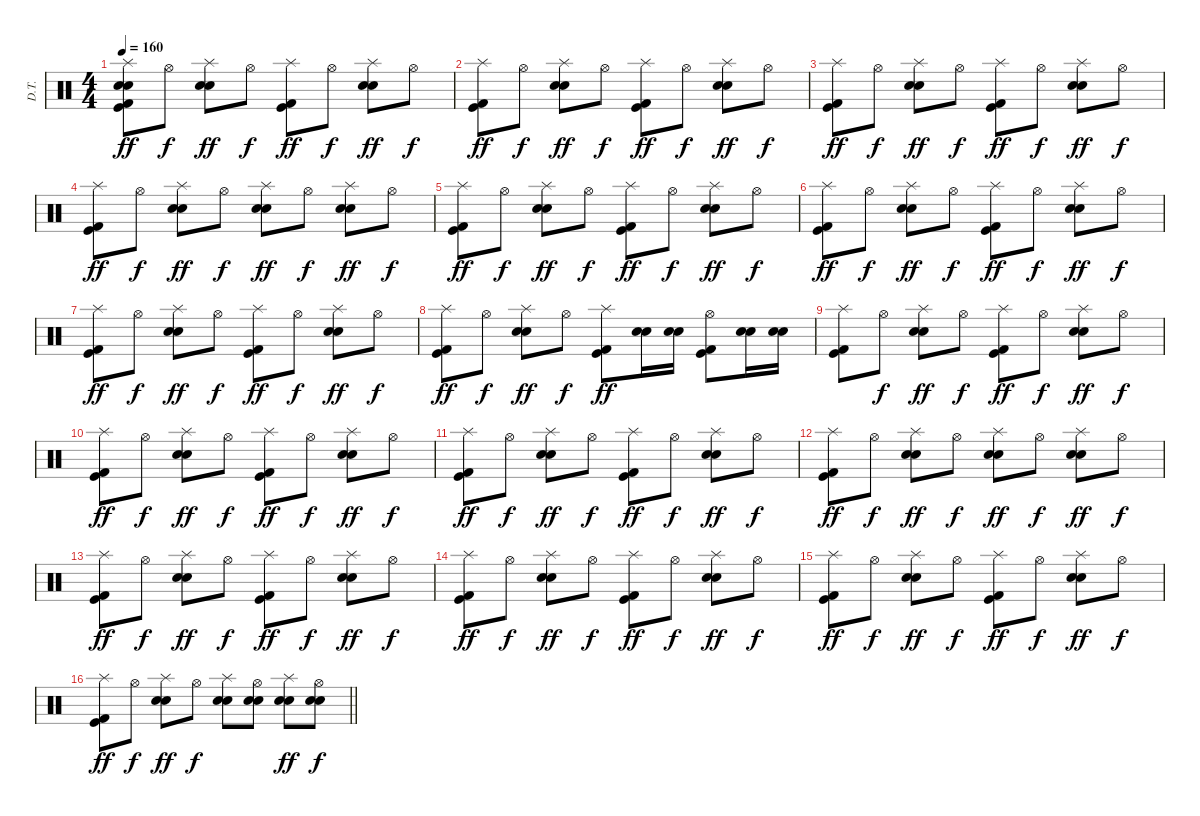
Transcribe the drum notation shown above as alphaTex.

\track ("D.T." "D.T.") {instrument percussion}
\staff {score}
\articulation defaults
\ts (4 4)
\tempo 160
\clef neutral
\ks c
("Splash (hit)" "Snare (hit) 2" "Electric Snare (hit)" "Kick (hit)" "Kick (hit) 2").8{dy ff} "Hi-Hat (open)".8{dy f} ("Splash (hit)" "Snare (hit) 2" "Electric Snare (hit)").8{dy ff} "Hi-Hat (open)".8{dy f} ("Splash (hit)" "Kick (hit)" "Kick (hit) 2").8{dy ff} "Hi-Hat (open)".8{dy f} ("Splash (hit)" "Snare (hit) 2" "Electric Snare (hit)").8{dy ff} "Hi-Hat (open)".8{dy f} |
("Splash (hit)" "Kick (hit)" "Kick (hit) 2").8{dy ff} "Hi-Hat (open)".8{dy f} ("Splash (hit)" "Snare (hit) 2" "Electric Snare (hit)").8{dy ff} "Hi-Hat (open)".8{dy f} ("Splash (hit)" "Kick (hit)" "Kick (hit) 2").8{dy ff} "Hi-Hat (open)".8{dy f} ("Splash (hit)" "Snare (hit) 2" "Electric Snare (hit)").8{dy ff} "Hi-Hat (open)".8{dy f} |
("Splash (hit)" "Kick (hit)" "Kick (hit) 2").8{dy ff} "Hi-Hat (open)".8{dy f} ("Splash (hit)" "Snare (hit) 2" "Electric Snare (hit)").8{dy ff} "Hi-Hat (open)".8{dy f} ("Splash (hit)" "Kick (hit)" "Kick (hit) 2").8{dy ff} "Hi-Hat (open)".8{dy f} ("Splash (hit)" "Snare (hit) 2" "Electric Snare (hit)").8{dy ff} "Hi-Hat (open)".8{dy f} |
("Splash (hit)" "Kick (hit)" "Kick (hit) 2").8{dy ff} "Hi-Hat (open)".8{dy f} ("Splash (hit)" "Snare (hit) 2" "Electric Snare (hit)").8{dy ff} "Hi-Hat (open)".8{dy f} ("Splash (hit)" "Snare (hit) 2" "Electric Snare (hit)").8{dy ff} "Hi-Hat (open)".8{dy f} ("Splash (hit)" "Snare (hit) 2" "Electric Snare (hit)").8{dy ff} "Hi-Hat (open)".8{dy f} |
("Splash (hit)" "Kick (hit)" "Kick (hit) 2").8{dy ff} "Hi-Hat (open)".8{dy f} ("Splash (hit)" "Snare (hit) 2" "Electric Snare (hit)").8{dy ff} "Hi-Hat (open)".8{dy f} ("Splash (hit)" "Kick (hit)" "Kick (hit) 2").8{dy ff} "Hi-Hat (open)".8{dy f} ("Splash (hit)" "Snare (hit) 2" "Electric Snare (hit)").8{dy ff} "Hi-Hat (open)".8{dy f} |
("Splash (hit)" "Kick (hit)" "Kick (hit) 2").8{dy ff} "Hi-Hat (open)".8{dy f} ("Splash (hit)" "Snare (hit) 2" "Electric Snare (hit)").8{dy ff} "Hi-Hat (open)".8{dy f} ("Splash (hit)" "Kick (hit)" "Kick (hit) 2").8{dy ff} "Hi-Hat (open)".8{dy f} ("Splash (hit)" "Snare (hit) 2" "Electric Snare (hit)").8{dy ff} "Hi-Hat (open)".8{dy f} |
("Splash (hit)" "Kick (hit)" "Kick (hit) 2").8{dy ff} "Hi-Hat (open)".8{dy f} ("Splash (hit)" "Snare (hit) 2" "Electric Snare (hit)").8{dy ff} "Hi-Hat (open)".8{dy f} ("Splash (hit)" "Kick (hit)" "Kick (hit) 2").8{dy ff} "Hi-Hat (open)".8{dy f} ("Splash (hit)" "Snare (hit) 2" "Electric Snare (hit)").8{dy ff} "Hi-Hat (open)".8{dy f} |
("Splash (hit)" "Kick (hit)" "Kick (hit) 2").8{dy ff} "Hi-Hat (open)".8{dy f} ("Splash (hit)" "Snare (hit) 2" "Electric Snare (hit)").8{dy ff} "Hi-Hat (open)".8{dy f} ("Splash (hit)" "Kick (hit)" "Kick (hit) 2").8{dy ff} ("Snare (hit) 2" "Electric Snare (hit)").16 ("Snare (hit) 2" "Electric Snare (hit)").16 ("Hi-Hat (open)" "Kick (hit)" "Kick (hit) 2").8 ("Snare (hit) 2" "Electric Snare (hit)").16 ("Snare (hit) 2" "Electric Snare (hit)").16 |
("Splash (hit)" "Kick (hit)" "Kick (hit) 2").8 "Hi-Hat (open)".8{dy f} ("Splash (hit)" "Snare (hit) 2" "Electric Snare (hit)").8{dy ff} "Hi-Hat (open)".8{dy f} ("Splash (hit)" "Kick (hit)" "Kick (hit) 2").8{dy ff} "Hi-Hat (open)".8{dy f} ("Splash (hit)" "Snare (hit) 2" "Electric Snare (hit)").8{dy ff} "Hi-Hat (open)".8{dy f} |
("Splash (hit)" "Kick (hit)" "Kick (hit) 2").8{dy ff} "Hi-Hat (open)".8{dy f} ("Splash (hit)" "Snare (hit) 2" "Electric Snare (hit)").8{dy ff} "Hi-Hat (open)".8{dy f} ("Splash (hit)" "Kick (hit)" "Kick (hit) 2").8{dy ff} "Hi-Hat (open)".8{dy f} ("Splash (hit)" "Snare (hit) 2" "Electric Snare (hit)").8{dy ff} "Hi-Hat (open)".8{dy f} |
("Splash (hit)" "Kick (hit)" "Kick (hit) 2").8{dy ff} "Hi-Hat (open)".8{dy f} ("Splash (hit)" "Snare (hit) 2" "Electric Snare (hit)").8{dy ff} "Hi-Hat (open)".8{dy f} ("Splash (hit)" "Kick (hit)" "Kick (hit) 2").8{dy ff} "Hi-Hat (open)".8{dy f} ("Splash (hit)" "Snare (hit) 2" "Electric Snare (hit)").8{dy ff} "Hi-Hat (open)".8{dy f} |
("Splash (hit)" "Kick (hit)" "Kick (hit) 2").8{dy ff} "Hi-Hat (open)".8{dy f} ("Splash (hit)" "Snare (hit) 2" "Electric Snare (hit)").8{dy ff} "Hi-Hat (open)".8{dy f} ("Splash (hit)" "Snare (hit) 2" "Electric Snare (hit)").8{dy ff} "Hi-Hat (open)".8{dy f} ("Splash (hit)" "Snare (hit) 2" "Electric Snare (hit)").8{dy ff} "Hi-Hat (open)".8{dy f} |
("Splash (hit)" "Kick (hit)" "Kick (hit) 2").8{dy ff} "Hi-Hat (open)".8{dy f} ("Splash (hit)" "Snare (hit) 2" "Electric Snare (hit)").8{dy ff} "Hi-Hat (open)".8{dy f} ("Splash (hit)" "Kick (hit)" "Kick (hit) 2").8{dy ff} "Hi-Hat (open)".8{dy f} ("Splash (hit)" "Snare (hit) 2" "Electric Snare (hit)").8{dy ff} "Hi-Hat (open)".8{dy f} |
("Splash (hit)" "Kick (hit)" "Kick (hit) 2").8{dy ff} "Hi-Hat (open)".8{dy f} ("Splash (hit)" "Snare (hit) 2" "Electric Snare (hit)").8{dy ff} "Hi-Hat (open)".8{dy f} ("Splash (hit)" "Kick (hit)" "Kick (hit) 2").8{dy ff} "Hi-Hat (open)".8{dy f} ("Splash (hit)" "Snare (hit) 2" "Electric Snare (hit)").8{dy ff} "Hi-Hat (open)".8{dy f} |
("Splash (hit)" "Kick (hit)" "Kick (hit) 2").8{dy ff} "Hi-Hat (open)".8{dy f} ("Splash (hit)" "Snare (hit) 2" "Electric Snare (hit)").8{dy ff} "Hi-Hat (open)".8{dy f} ("Splash (hit)" "Kick (hit)" "Kick (hit) 2").8{dy ff} "Hi-Hat (open)".8{dy f} ("Splash (hit)" "Snare (hit) 2" "Electric Snare (hit)").8{dy ff} "Hi-Hat (open)".8{dy f} |
\barLineRight lightlight
("Splash (hit)" "Kick (hit)" "Kick (hit) 2").8{dy ff} "Hi-Hat (open)".8{dy f} ("Splash (hit)" "Snare (hit) 2" "Electric Snare (hit)").8{dy ff} "Hi-Hat (open)".8{dy f} ("Splash (hit)" "Snare (hit) 2" "Electric Snare (hit)").8 ("Hi-Hat (open)" "Snare (hit) 2" "Electric Snare (hit)").8 ("Splash (hit)" "Snare (hit) 2" "Electric Snare (hit)").8{dy ff} ("Hi-Hat (open)" "Snare (hit) 2" "Electric Snare (hit)").8{dy f}
